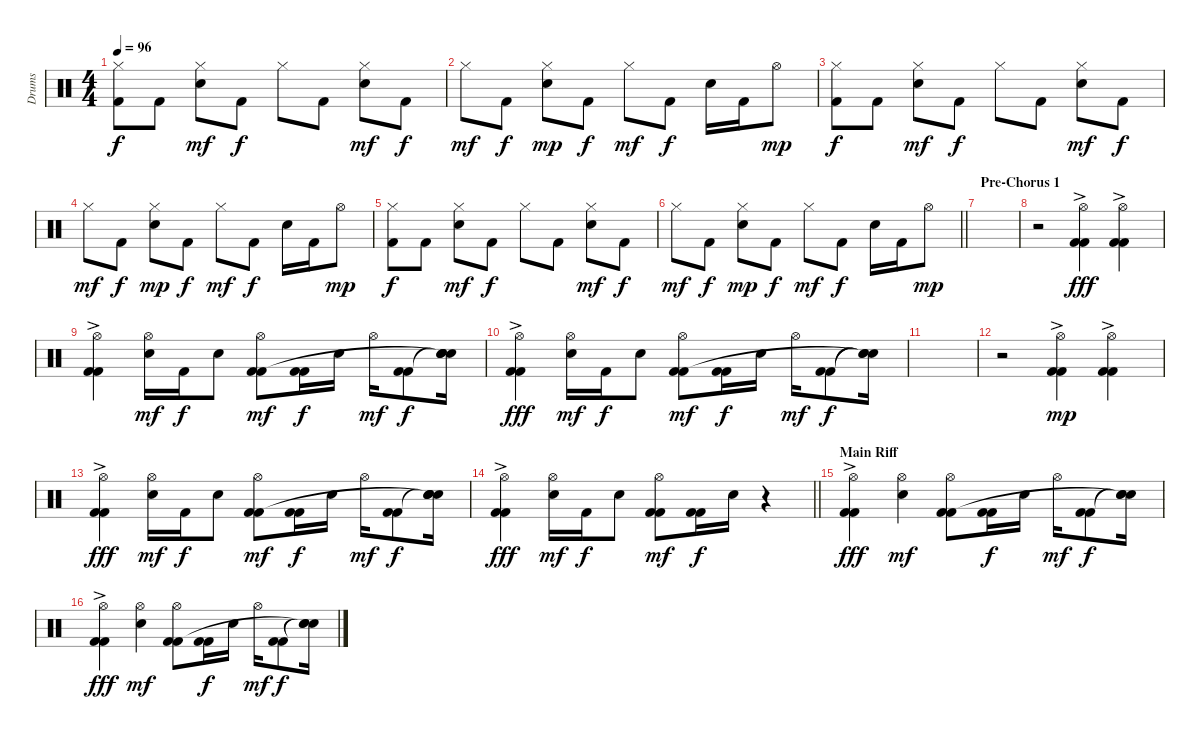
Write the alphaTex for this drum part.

\track ("Drums" "Drums") {instrument percussion}
\staff {score}
\articulation defaults
\ts (4 4)
\tempo 96
\clef neutral
\ks c
("Hi-Hat (closed)" "Kick (hit) 2").8{dy f} "Kick (hit) 2".8 ("Hi-Hat (closed)" "Electric Snare (hit)").8{dy mf} "Kick (hit) 2".8{dy f} "Hi-Hat (closed)".8 "Kick (hit) 2".8 ("Hi-Hat (closed)" "Electric Snare (hit)").8{dy mf} "Kick (hit) 2".8{dy f} |
"Hi-Hat (closed)".8{dy mf} "Kick (hit) 2".8{dy f} ("Hi-Hat (closed)" "Electric Snare (hit)").8{dy mp} "Kick (hit) 2".8{dy f} "Hi-Hat (closed)".8{dy mf} "Kick (hit) 2".8{dy f} "Electric Snare (hit)".16 "Kick (hit) 2".16 "Hi-Hat (open)".8{dy mp} |
("Hi-Hat (closed)" "Kick (hit) 2").8{dy f} "Kick (hit) 2".8 ("Hi-Hat (closed)" "Electric Snare (hit)").8{dy mf} "Kick (hit) 2".8{dy f} "Hi-Hat (closed)".8 "Kick (hit) 2".8 ("Hi-Hat (closed)" "Electric Snare (hit)").8{dy mf} "Kick (hit) 2".8{dy f} |
"Hi-Hat (closed)".8{dy mf} "Kick (hit) 2".8{dy f} ("Hi-Hat (closed)" "Electric Snare (hit)").8{dy mp} "Kick (hit) 2".8{dy f} "Hi-Hat (closed)".8{dy mf} "Kick (hit) 2".8{dy f} "Electric Snare (hit)".16 "Kick (hit) 2".16 "Hi-Hat (open)".8{dy mp} |
("Hi-Hat (closed)" "Kick (hit) 2").8{dy f} "Kick (hit) 2".8 ("Hi-Hat (closed)" "Electric Snare (hit)").8{dy mf} "Kick (hit) 2".8{dy f} "Hi-Hat (closed)".8 "Kick (hit) 2".8 ("Hi-Hat (closed)" "Electric Snare (hit)").8{dy mf} "Kick (hit) 2".8{dy f} |
\barLineRight lightlight "Hi-Hat (closed)".8{dy mf} "Kick (hit) 2".8{dy f}
("Hi-Hat (closed)" "Electric Snare (hit)").8{dy mp} "Kick (hit) 2".8{dy f} "Hi-Hat (closed)".8{dy mf} "Kick (hit) 2".8{dy f} "Electric Snare (hit)".16 "Kick (hit) 2".16 "Hi-Hat (open)".8{dy mp} |
\section ("" "Pre-Chorus 1")
|
r.2{volume 16} ("Hi-Hat (open)"{ac} "Kick (hit) 2" "Kick (hit) 2").4{dy fff} ("Hi-Hat (open)"{ac} "Kick (hit) 2" "Kick (hit) 2").4 |
("Hi-Hat (open)"{ac} "Kick (hit) 2" "Kick (hit) 2").4 ("Hi-Hat (open)" "Snare (hit) 2").16{dy mf} "Kick (hit) 2".16{dy f} "Snare (hit) 2".8 ("Hi-Hat (open)" "Kick (hit) 2" "Kick (hit) 2").8{dy mf} ("Kick (hit) 2" "Kick (hit) 2").16{dy f} "Snare (hit) 2".16 "Hi-Hat (open)".16{dy mf} ("Kick (hit) 2" "Kick (hit) 2").8{dy f} ("Snare (hit)"{t} "Snare (hit) 2" "Snare (hit)"{t} "Snare (hit)").16 |
("Hi-Hat (open)"{ac} "Kick (hit) 2" "Kick (hit) 2").4{dy fff} ("Hi-Hat (open)" "Snare (hit) 2").16{dy mf} "Kick (hit) 2".16{dy f} "Snare (hit) 2".8 ("Hi-Hat (open)" "Kick (hit) 2" "Kick (hit) 2").8{dy mf} ("Kick (hit) 2" "Kick (hit) 2").16{dy f} "Snare (hit) 2".16 "Hi-Hat (open)".16{dy mf} ("Kick (hit) 2" "Kick (hit) 2").8{dy f} ("Snare (hit)"{t} "Snare (hit)"{t} "Snare (hit)"{t}).16 |
|
r.2{volume 16} ("Hi-Hat (open)"{ac} "Kick (hit) 2" "Kick (hit) 2").4{dy mp} ("Hi-Hat (open)"{ac} "Kick (hit) 2" "Kick (hit) 2").4 |
("Hi-Hat (open)"{ac} "Kick (hit) 2" "Kick (hit) 2").4{dy fff} ("Hi-Hat (open)" "Snare (hit) 2").16{dy mf} "Kick (hit) 2".16{dy f} "Snare (hit) 2".8 ("Hi-Hat (open)" "Kick (hit) 2" "Kick (hit) 2").8{dy mf} ("Kick (hit) 2" "Kick (hit) 2").16{dy f} "Snare (hit) 2".16 "Hi-Hat (open)".16{dy mf} ("Kick (hit) 2" "Kick (hit) 2").8{dy f} ("Snare (hit)"{t} "Snare (hit) 2" "Snare (hit)"{t} "Snare (hit)").16 |
\barLineRight lightlight
("Hi-Hat (open)"{ac} "Kick (hit) 2" "Kick (hit) 2").4{dy fff} ("Hi-Hat (open)" "Snare (hit) 2").16{dy mf} "Kick (hit) 2".16{dy f} "Snare (hit) 2".8 ("Hi-Hat (open)" "Kick (hit) 2" "Kick (hit) 2").8{dy mf} ("Kick (hit) 2" "Kick (hit) 2").16{dy f} "Snare (hit) 2".16 r.4 |
\section ("" "Main Riff")
("Hi-Hat (open)"{ac} "Kick (hit) 2" "Kick (hit) 2").4{dy fff} ("Hi-Hat (open)" "Snare (hit) 2").4{dy mf} ("Hi-Hat (open)" "Kick (hit) 2" "Kick (hit) 2").8 ("Kick (hit) 2" "Kick (hit) 2").16{dy f} "Snare (hit) 2".16 "Hi-Hat (open)".16{dy mf} ("Kick (hit) 2" "Kick (hit) 2").8{dy f} ("Snare (hit)"{t} "Snare (hit)"{t} "Snare (hit)"{t}).16 |
("Hi-Hat (open)"{ac} "Kick (hit) 2" "Kick (hit) 2").4{dy fff} ("Hi-Hat (open)" "Snare (hit) 2").4{dy mf} ("Hi-Hat (open)" "Kick (hit) 2" "Kick (hit) 2").8 ("Kick (hit) 2" "Kick (hit) 2").16{dy f} "Snare (hit) 2".16 "Hi-Hat (open)".16{dy mf} ("Kick (hit) 2" "Kick (hit) 2").8{dy f} ("Snare (hit)"{t} "Snare (hit)"{t} "Snare (hit)"{t}).16
